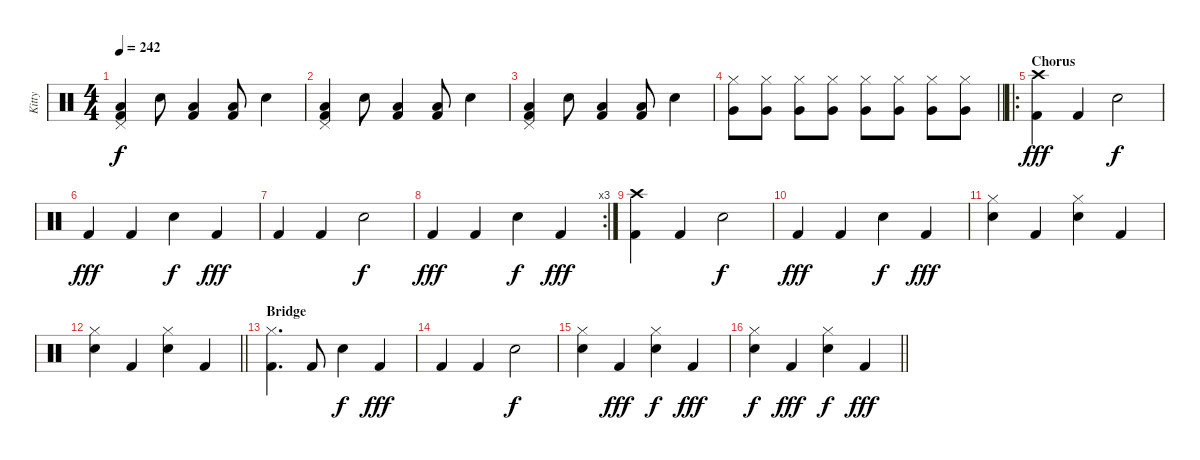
\track ("Kitty" "Kitty") {instrument percussion}
\staff {score}
\articulation defaults
\ts (4 4)
\tempo 242
\clef neutral
\ks c
("Pedal Hi-Hat (hit)" "Low Tom (hit)" "Kick (hit) 2").4{dy f volume 16} "Electric Snare (hit)".8 ("Low Tom (hit)" "Kick (hit) 2").4 ("Low Tom (hit)" "Kick (hit) 2").8 "Electric Snare (hit)".4 |
("Pedal Hi-Hat (hit)" "Low Tom (hit)" "Kick (hit) 2").4 "Electric Snare (hit)".8 ("Low Tom (hit)" "Kick (hit) 2").4 ("Low Tom (hit)" "Kick (hit) 2").8 "Electric Snare (hit)".4 |
("Pedal Hi-Hat (hit)" "Low Tom (hit)" "Kick (hit) 2").4 "Electric Snare (hit)".8 ("Low Tom (hit)" "Kick (hit) 2").4 ("Low Tom (hit)" "Kick (hit) 2").8 "Electric Snare (hit)".4 |
\barLineRight lightlight
("Hi-Hat (closed)" "Very Low Tom (hit)").8 ("Hi-Hat (closed)" "Very Low Tom (hit)").8 ("Hi-Hat (closed)" "Very Low Tom (hit)").8 ("Hi-Hat (closed)" "Very Low Tom (hit)").8 ("Hi-Hat (closed)" "Very Low Tom (hit)").8 ("Hi-Hat (closed)" "Very Low Tom (hit)").8 ("Hi-Hat (closed)" "Very Low Tom (hit)").8 ("Hi-Hat (closed)" "Very Low Tom (hit)").8 |
\ro
\section ("" "Chorus")
("Crash high (hit)" "Kick (hit) 2").4{dy fff} "Kick (hit) 2".4 "Snare (hit) 2".2{dy f} |
"Kick (hit) 2".4{dy fff} "Kick (hit) 2".4 "Snare (hit) 2".4{dy f} "Kick (hit) 2".4{dy fff} |
"Kick (hit) 2".4 "Kick (hit) 2".4 "Snare (hit) 2".2{dy f} |
\rc 3 "Kick (hit) 2".4{dy fff} "Kick (hit) 2".4 "Snare (hit) 2".4{dy f} "Kick (hit) 2".4{dy fff}
|
("Crash high (hit)" "Kick (hit) 2").4 "Kick (hit) 2".4 "Snare (hit) 2".2{dy f} |
"Kick (hit) 2".4{dy fff} "Kick (hit) 2".4 "Snare (hit) 2".4{dy f} "Kick (hit) 2".4{dy fff} |
("Snare (hit) 2" "Hi-Hat (closed)").4 "Kick (hit) 2".4 ("Snare (hit) 2" "Hi-Hat (closed)").4 "Kick (hit) 2".4 |
\barLineRight lightlight
("Snare (hit) 2" "Hi-Hat (closed)").4 "Kick (hit) 2".4 ("Snare (hit) 2" "Hi-Hat (closed)").4 "Kick (hit) 2".4 |
\section ("" "Bridge")
("Hi-Hat (closed)" "Kick (hit) 2").4{d} "Kick (hit) 2".8 "Electric Snare (hit)".4{dy f} "Kick (hit) 2".4{dy fff} |
"Kick (hit) 2".4 "Kick (hit) 2".4 "Electric Snare (hit)".2{dy f} |
("Hi-Hat (closed)" "Electric Snare (hit)").4 "Kick (hit) 2".4{dy fff} ("Hi-Hat (closed)" "Electric Snare (hit)").4{dy f} "Kick (hit) 2".4{dy fff} |
\barLineRight lightlight
("Hi-Hat (closed)" "Electric Snare (hit)").4{dy f} "Kick (hit) 2".4{dy fff} ("Hi-Hat (closed)" "Electric Snare (hit)").4{dy f} "Kick (hit) 2".4{dy fff}
